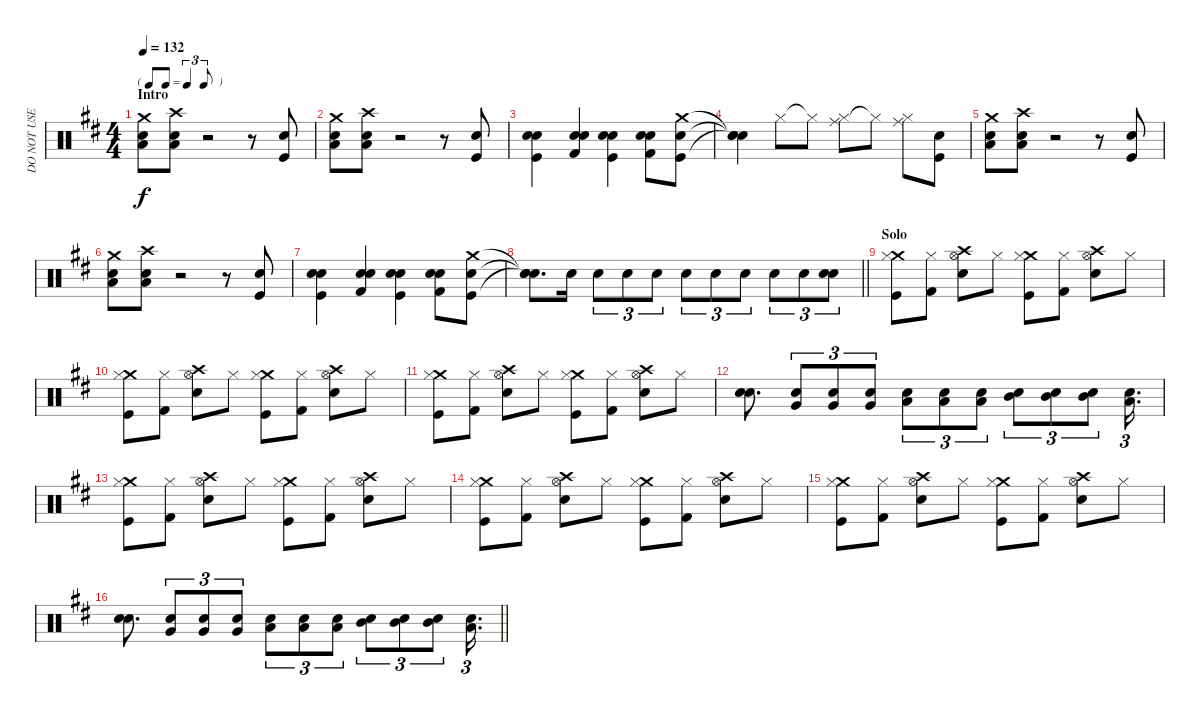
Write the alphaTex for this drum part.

\track ("DO NOT USE" "DO NOT USE") {solo instrument percussion}
\staff {score}
\articulation defaults
\ts (4 4)
\tf triplet8th
\section ("" "Intro")
\tempo 132
\clef neutral
\ks d
("Crash medium (hit)" "Low Tom (hit)" "Electric Snare (hit)").8{dy f} ("Crash high (hit)" "Low Tom (hit)" "Electric Snare (hit)").8 r.2 r.8 ("Electric Snare (hit)" "Kick (hit)").8 |
("Crash medium (hit)" "Low Tom (hit)" "Electric Snare (hit)").8 ("Crash high (hit)" "Low Tom (hit)" "Electric Snare (hit)").8 r.2 r.8 ("Electric Snare (hit)" "Kick (hit)").8 |
("Kick (hit)" "Snare (hit) 2" "Electric Snare (hit)").4 ("Kick (hit) 2" "Snare (hit) 2" "Electric Snare (hit)").4 ("Kick (hit)" "Snare (hit) 2" "Electric Snare (hit)").4 ("Kick (hit) 2" "Snare (hit) 2" "Electric Snare (hit)").8 ("Kick (hit)" "Crash medium (hit)" "Electric Snare (hit)").8 |
("Snare (hit)"{t} "Snare (hit)"{t} "Snare (hit)"{t}).4 "Hi-Hat (closed)".8 "Hi-Hat (closed)"{t}.8 ("Ride (middle)" "Hi-Hat (closed)").8 "Hi-Hat (closed)"{t}.8 ("Ride (middle)" "Hi-Hat (closed)").8 ("Electric Snare (hit)" "Kick (hit)").8 |
("Crash medium (hit)" "Low Tom (hit)" "Electric Snare (hit)").8 ("Crash high (hit)" "Low Tom (hit)" "Electric Snare (hit)").8 r.2 r.8 ("Electric Snare (hit)" "Kick (hit)").8 |
("Crash medium (hit)" "Low Tom (hit)" "Electric Snare (hit)").8 ("Crash high (hit)" "Low Tom (hit)" "Electric Snare (hit)").8 r.2 r.8 ("Electric Snare (hit)" "Kick (hit)").8 |
("Kick (hit)" "Snare (hit) 2" "Electric Snare (hit)").4 ("Kick (hit) 2" "Snare (hit) 2" "Electric Snare (hit)").4 ("Kick (hit)" "Snare (hit) 2" "Electric Snare (hit)").4 ("Kick (hit) 2" "Snare (hit) 2" "Electric Snare (hit)").8 ("Kick (hit)" "Crash medium (hit)" "Electric Snare (hit)").8 |
\barLineRight lightlight
("Snare (hit)"{t} "Snare (hit)"{t} "Snare (hit)"{t}).8{d} "Snare (hit) 2".16 "Snare (hit) 2".8{tu (3 2)} "Snare (hit) 2".8{tu (3 2)} "Snare (hit) 2".8{tu (3 2)} "Snare (hit) 2".8{tu (3 2)} "Snare (hit) 2".8{tu (3 2)} "Snare (hit) 2".8{tu (3 2)} "Electric Snare (hit)".8{tu (3 2)} "Electric Snare (hit)".8{tu (3 2)} ("Snare (hit) 2" "Electric Snare (hit)").8{tu (3 2)} |
\section ("" "Solo")
("Crash medium (hit)" "Kick (hit)" "Hi-Hat (closed)").8 ("Kick (hit) 2" "Hi-Hat (closed)").8 ("Crash high (hit)" "Electric Snare (hit)" "Hi-Hat (open)").8 "Hi-Hat (closed)".8 ("Crash medium (hit)" "Kick (hit)" "Hi-Hat (closed)").8 ("Kick (hit) 2" "Hi-Hat (closed)").8 ("Crash high (hit)" "Snare (hit) 2" "Hi-Hat (open)").8 "Hi-Hat (closed)".8 |
("Crash medium (hit)" "Kick (hit)" "Hi-Hat (closed)").8 ("Kick (hit) 2" "Hi-Hat (closed)").8 ("Crash high (hit)" "Electric Snare (hit)" "Hi-Hat (open)").8 "Hi-Hat (closed)".8 ("Crash medium (hit)" "Kick (hit)" "Hi-Hat (closed)").8 ("Kick (hit) 2" "Hi-Hat (closed)").8 ("Crash high (hit)" "Snare (hit) 2" "Hi-Hat (open)").8 "Hi-Hat (closed)".8 |
("Crash medium (hit)" "Kick (hit)" "Hi-Hat (closed)").8 ("Kick (hit) 2" "Hi-Hat (closed)").8 ("Crash high (hit)" "Electric Snare (hit)" "Hi-Hat (open)").8 "Hi-Hat (closed)".8 ("Crash medium (hit)" "Kick (hit)" "Hi-Hat (closed)").8 ("Kick (hit) 2" "Hi-Hat (closed)").8 ("Crash high (hit)" "Electric Snare (hit)" "Hi-Hat (open)").8 "Hi-Hat (closed)".8 |
("Snare (hit) 2" "Electric Snare (hit)").8{d} ("Electric Snare (hit)" "Very Low Tom (hit)").8{tu (3 2)} ("Electric Snare (hit)" "Very Low Tom (hit)").8{tu (3 2)} ("Electric Snare (hit)" "Very Low Tom (hit)").8{tu (3 2)} ("Snare (hit) 2" "Low Tom (hit)").8{tu (3 2)} ("Snare (hit) 2" "Low Tom (hit)").8{tu (3 2)} ("Snare (hit) 2" "Low Tom (hit)").8{tu (3 2)} ("Electric Snare (hit)" "Mid Tom (hit)").8{tu (3 2)} ("Electric Snare (hit)" "Mid Tom (hit)").8{tu (3 2)} ("Electric Snare (hit)" "Mid Tom (hit)").8{tu (3 2)} ("Electric Snare (hit)" "Low Floor Tom (hit)").16{d tu (3 2)} |
("Crash medium (hit)" "Kick (hit)" "Hi-Hat (closed)").8 ("Kick (hit) 2" "Hi-Hat (closed)").8 ("Crash high (hit)" "Electric Snare (hit)" "Hi-Hat (open)").8 "Hi-Hat (closed)".8 ("Crash medium (hit)" "Kick (hit)" "Hi-Hat (closed)").8 ("Kick (hit) 2" "Hi-Hat (closed)").8 ("Crash high (hit)" "Snare (hit) 2" "Hi-Hat (open)").8 "Hi-Hat (closed)".8 |
("Crash medium (hit)" "Kick (hit)" "Hi-Hat (closed)").8 ("Kick (hit) 2" "Hi-Hat (closed)").8 ("Crash high (hit)" "Electric Snare (hit)" "Hi-Hat (open)").8 "Hi-Hat (closed)".8 ("Crash medium (hit)" "Kick (hit)" "Hi-Hat (closed)").8 ("Kick (hit) 2" "Hi-Hat (closed)").8 ("Crash high (hit)" "Snare (hit) 2" "Hi-Hat (open)").8 "Hi-Hat (closed)".8 |
("Crash medium (hit)" "Kick (hit)" "Hi-Hat (closed)").8 ("Kick (hit) 2" "Hi-Hat (closed)").8 ("Crash high (hit)" "Electric Snare (hit)" "Hi-Hat (open)").8 "Hi-Hat (closed)".8 ("Crash medium (hit)" "Kick (hit)" "Hi-Hat (closed)").8 ("Kick (hit) 2" "Hi-Hat (closed)").8 ("Crash high (hit)" "Electric Snare (hit)" "Hi-Hat (open)").8 "Hi-Hat (closed)".8 |
\barLineRight lightlight
("Snare (hit) 2" "Electric Snare (hit)").8{d} ("Electric Snare (hit)" "Very Low Tom (hit)").8{tu (3 2)} ("Electric Snare (hit)" "Very Low Tom (hit)").8{tu (3 2)} ("Electric Snare (hit)" "Very Low Tom (hit)").8{tu (3 2)} ("Snare (hit) 2" "Low Tom (hit)").8{tu (3 2)} ("Snare (hit) 2" "Low Tom (hit)").8{tu (3 2)} ("Snare (hit) 2" "Low Tom (hit)").8{tu (3 2)} ("Electric Snare (hit)" "Mid Tom (hit)").8{tu (3 2)} ("Electric Snare (hit)" "Mid Tom (hit)").8{tu (3 2)} ("Electric Snare (hit)" "Mid Tom (hit)").8{tu (3 2)} ("Electric Snare (hit)" "Low Floor Tom (hit)").16{d tu (3 2)}
